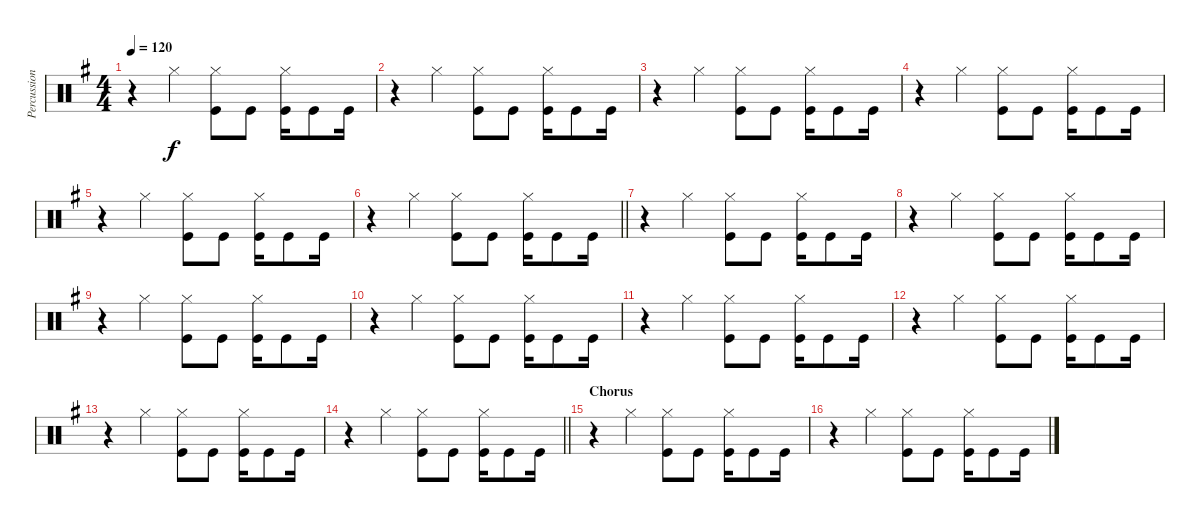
\track ("Percussion" "Percussion") {instrument percussion}
\staff {score}
\articulation defaults
\ts (4 4)
\tempo 120
\clef neutral
\ks eminor
r.4{dy f} "Hi-Hat (closed)".4 ("Kick (hit)" "Hi-Hat (closed)").8 "Kick (hit)".8 ("Kick (hit)" "Hi-Hat (closed)").16 "Kick (hit)".8 "Kick (hit)".16 |
r.4 "Hi-Hat (closed)".4 ("Kick (hit)" "Hi-Hat (closed)").8 "Kick (hit)".8 ("Kick (hit)" "Hi-Hat (closed)").16 "Kick (hit)".8 "Kick (hit)".16 |
r.4 "Hi-Hat (closed)".4 ("Kick (hit)" "Hi-Hat (closed)").8 "Kick (hit)".8 ("Kick (hit)" "Hi-Hat (closed)").16 "Kick (hit)".8 "Kick (hit)".16 |
r.4 "Hi-Hat (closed)".4 ("Kick (hit)" "Hi-Hat (closed)").8 "Kick (hit)".8 ("Kick (hit)" "Hi-Hat (closed)").16 "Kick (hit)".8 "Kick (hit)".16 |
r.4 "Hi-Hat (closed)".4 ("Kick (hit)" "Hi-Hat (closed)").8 "Kick (hit)".8 ("Kick (hit)" "Hi-Hat (closed)").16 "Kick (hit)".8 "Kick (hit)".16 |
\barLineRight lightlight
r.4 "Hi-Hat (closed)".4 ("Kick (hit)" "Hi-Hat (closed)").8 "Kick (hit)".8 ("Kick (hit)" "Hi-Hat (closed)").16 "Kick (hit)".8 "Kick (hit)".16 |
r.4 "Hi-Hat (closed)".4 ("Kick (hit)" "Hi-Hat (closed)").8 "Kick (hit)".8 ("Kick (hit)" "Hi-Hat (closed)").16 "Kick (hit)".8 "Kick (hit)".16 |
r.4 "Hi-Hat (closed)".4 ("Kick (hit)" "Hi-Hat (closed)").8 "Kick (hit)".8 ("Kick (hit)" "Hi-Hat (closed)").16 "Kick (hit)".8 "Kick (hit)".16 |
r.4 "Hi-Hat (closed)".4 ("Kick (hit)" "Hi-Hat (closed)").8 "Kick (hit)".8 ("Kick (hit)" "Hi-Hat (closed)").16 "Kick (hit)".8 "Kick (hit)".16 |
r.4 "Hi-Hat (closed)".4 ("Kick (hit)" "Hi-Hat (closed)").8 "Kick (hit)".8 ("Kick (hit)" "Hi-Hat (closed)").16 "Kick (hit)".8 "Kick (hit)".16 |
r.4 "Hi-Hat (closed)".4 ("Kick (hit)" "Hi-Hat (closed)").8 "Kick (hit)".8 ("Kick (hit)" "Hi-Hat (closed)").16 "Kick (hit)".8 "Kick (hit)".16 |
r.4 "Hi-Hat (closed)".4 ("Kick (hit)" "Hi-Hat (closed)").8 "Kick (hit)".8 ("Kick (hit)" "Hi-Hat (closed)").16 "Kick (hit)".8 "Kick (hit)".16 |
r.4 "Hi-Hat (closed)".4 ("Kick (hit)" "Hi-Hat (closed)").8 "Kick (hit)".8 ("Kick (hit)" "Hi-Hat (closed)").16 "Kick (hit)".8 "Kick (hit)".16 |
\barLineRight lightlight
r.4 "Hi-Hat (closed)".4 ("Kick (hit)" "Hi-Hat (closed)").8 "Kick (hit)".8 ("Kick (hit)" "Hi-Hat (closed)").16 "Kick (hit)".8 "Kick (hit)".16 |
\section ("" "Chorus")
r.4 "Hi-Hat (closed)".4 ("Kick (hit)" "Hi-Hat (closed)").8 "Kick (hit)".8 ("Kick (hit)" "Hi-Hat (closed)").16 "Kick (hit)".8 "Kick (hit)".16 |
r.4 "Hi-Hat (closed)".4 ("Kick (hit)" "Hi-Hat (closed)").8 "Kick (hit)".8 ("Kick (hit)" "Hi-Hat (closed)").16 "Kick (hit)".8 "Kick (hit)".16
